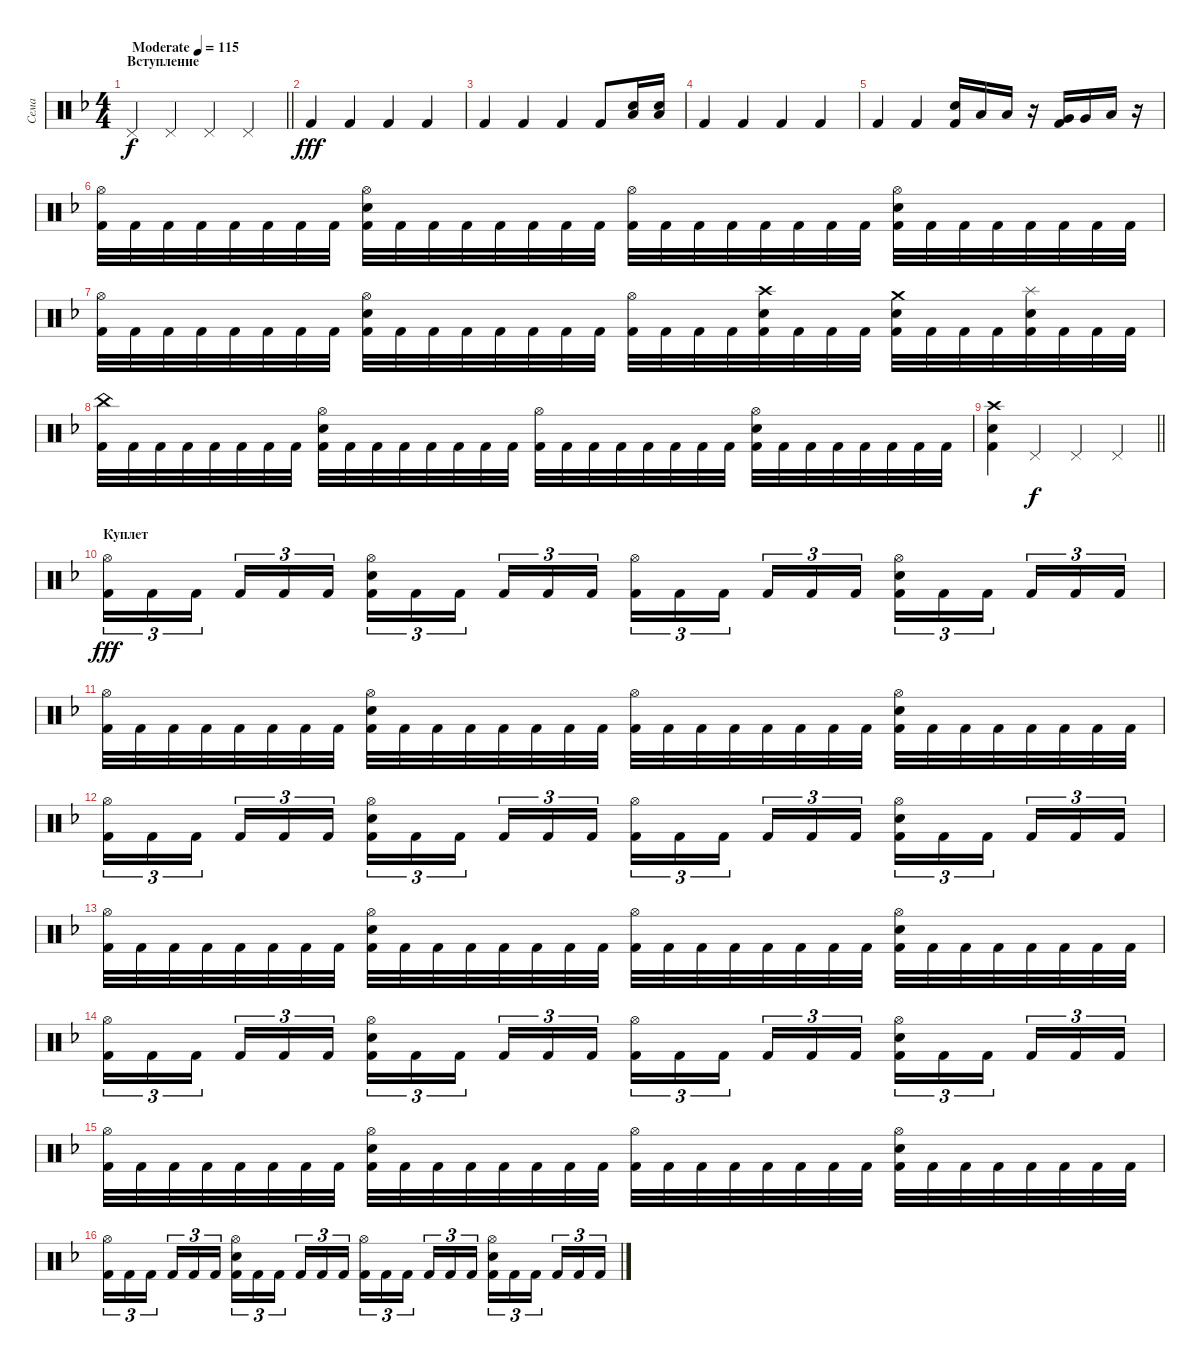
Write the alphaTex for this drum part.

\track ("Сема" "Сема") {instrument percussion}
\staff {score}
\articulation defaults
\ts (4 4)
\section ("" "Вступление")
\tempo (115 "Moderate")
\clef neutral
\barLineRight lightlight
\ks dminor "Pedal Hi-Hat (hit)".4{dy f} "Pedal Hi-Hat (hit)".4 "Pedal Hi-Hat (hit)".4 "Pedal Hi-Hat (hit)".4
|
"Kick (hit) 2".4{dy fff} "Kick (hit) 2".4 "Kick (hit) 2".4 "Kick (hit) 2".4 |
"Kick (hit) 2".4 "Kick (hit) 2".4 "Kick (hit) 2".4 "Kick (hit) 2".8 ("Electric Snare (hit)" "Low Floor Tom (hit)").16 ("Electric Snare (hit)" "Low Floor Tom (hit)").16 |
"Kick (hit) 2".4 "Kick (hit) 2".4 "Kick (hit) 2".4 "Kick (hit) 2".4 |
"Kick (hit) 2".4 "Kick (hit) 2".4 ("Electric Snare (hit)" "Kick (hit) 2").16 "Low Tom (hit)".16 "Low Tom (hit)".16 r.16 ("Very Low Tom (hit)" "Kick (hit) 2").16 "Very Low Tom (hit)".16 "Low Floor Tom (hit)".16 r.16 |
("Hi-Hat (open)" "Kick (hit) 2").32 "Kick (hit) 2".32 "Kick (hit) 2".32 "Kick (hit) 2".32 "Kick (hit) 2".32 "Kick (hit) 2".32 "Kick (hit) 2".32 "Kick (hit) 2".32 ("Hi-Hat (open)" "Electric Snare (hit)" "Kick (hit) 2").32 "Kick (hit) 2".32 "Kick (hit) 2".32 "Kick (hit) 2".32 "Kick (hit) 2".32 "Kick (hit) 2".32 "Kick (hit) 2".32 "Kick (hit) 2".32 ("Hi-Hat (open)" "Kick (hit) 2").32 "Kick (hit) 2".32 "Kick (hit) 2".32 "Kick (hit) 2".32 "Kick (hit) 2".32 "Kick (hit) 2".32 "Kick (hit) 2".32 "Kick (hit) 2".32 ("Hi-Hat (open)" "Electric Snare (hit)" "Kick (hit) 2").32 "Kick (hit) 2".32 "Kick (hit) 2".32 "Kick (hit) 2".32 "Kick (hit) 2".32 "Kick (hit) 2".32 "Kick (hit) 2".32 "Kick (hit) 2".32 |
("Hi-Hat (open)" "Kick (hit) 2").32 "Kick (hit) 2".32 "Kick (hit) 2".32 "Kick (hit) 2".32 "Kick (hit) 2".32 "Kick (hit) 2".32 "Kick (hit) 2".32 "Kick (hit) 2".32 ("Hi-Hat (open)" "Electric Snare (hit)" "Kick (hit) 2").32 "Kick (hit) 2".32 "Kick (hit) 2".32 "Kick (hit) 2".32 "Kick (hit) 2".32 "Kick (hit) 2".32 "Kick (hit) 2".32 "Kick (hit) 2".32 ("Hi-Hat (open)" "Kick (hit) 2").32 "Kick (hit) 2".32 "Kick (hit) 2".32 "Kick (hit) 2".32 ("Crash high (hit)" "Electric Snare (hit)" "Kick (hit) 2").32 "Kick (hit) 2".32 "Kick (hit) 2".32 "Kick (hit) 2".32 ("Crash medium (hit)" "Electric Snare (hit)" "Kick (hit) 2").32 "Kick (hit) 2".32 "Kick (hit) 2".32 "Kick (hit) 2".32 ("Splash (hit)" "Electric Snare (hit)" "Kick (hit) 2").32 "Kick (hit) 2".32 "Kick (hit) 2".32 "Kick (hit) 2".32 |
("China (hit)" "Kick (hit) 2").32 "Kick (hit) 2".32 "Kick (hit) 2".32 "Kick (hit) 2".32 "Kick (hit) 2".32 "Kick (hit) 2".32 "Kick (hit) 2".32 "Kick (hit) 2".32 ("Hi-Hat (open)" "Electric Snare (hit)" "Kick (hit) 2").32 "Kick (hit) 2".32 "Kick (hit) 2".32 "Kick (hit) 2".32 "Kick (hit) 2".32 "Kick (hit) 2".32 "Kick (hit) 2".32 "Kick (hit) 2".32 ("Hi-Hat (open)" "Kick (hit) 2").32 "Kick (hit) 2".32 "Kick (hit) 2".32 "Kick (hit) 2".32 "Kick (hit) 2".32 "Kick (hit) 2".32 "Kick (hit) 2".32 "Kick (hit) 2".32 ("Hi-Hat (open)" "Electric Snare (hit)" "Kick (hit) 2").32 "Kick (hit) 2".32 "Kick (hit) 2".32 "Kick (hit) 2".32 "Kick (hit) 2".32 "Kick (hit) 2".32 "Kick (hit) 2".32 "Kick (hit) 2".32 |
\barLineRight lightlight
("Crash high (hit)" "Electric Snare (hit)" "Kick (hit) 2").4 "Pedal Hi-Hat (hit)".4{dy f} "Pedal Hi-Hat (hit)".4 "Pedal Hi-Hat (hit)".4 |
\section ("" "Куплет ")
("Hi-Hat (open)" "Kick (hit) 2").16{tu (3 2) dy fff} "Kick (hit) 2".16{tu (3 2)} "Kick (hit) 2".16{tu (3 2) beam splitsecondary} "Kick (hit) 2".16{tu (3 2)} "Kick (hit) 2".16{tu (3 2)} "Kick (hit) 2".16{tu (3 2)} ("Hi-Hat (open)" "Electric Snare (hit)" "Kick (hit) 2").16{tu (3 2)} "Kick (hit) 2".16{tu (3 2)} "Kick (hit) 2".16{tu (3 2) beam splitsecondary} "Kick (hit) 2".16{tu (3 2)} "Kick (hit) 2".16{tu (3 2)} "Kick (hit) 2".16{tu (3 2)} ("Hi-Hat (open)" "Kick (hit) 2").16{tu (3 2)} "Kick (hit) 2".16{tu (3 2)} "Kick (hit) 2".16{tu (3 2) beam splitsecondary} "Kick (hit) 2".16{tu (3 2)} "Kick (hit) 2".16{tu (3 2)} "Kick (hit) 2".16{tu (3 2)} ("Hi-Hat (open)" "Electric Snare (hit)" "Kick (hit) 2").16{tu (3 2)} "Kick (hit) 2".16{tu (3 2)} "Kick (hit) 2".16{tu (3 2) beam splitsecondary} "Kick (hit) 2".16{tu (3 2)} "Kick (hit) 2".16{tu (3 2)} "Kick (hit) 2".16{tu (3 2)} |
("Hi-Hat (open)" "Kick (hit) 2").32 "Kick (hit) 2".32 "Kick (hit) 2".32 "Kick (hit) 2".32 "Kick (hit) 2".32 "Kick (hit) 2".32 "Kick (hit) 2".32 "Kick (hit) 2".32 ("Hi-Hat (open)" "Electric Snare (hit)" "Kick (hit) 2").32 "Kick (hit) 2".32 "Kick (hit) 2".32 "Kick (hit) 2".32 "Kick (hit) 2".32 "Kick (hit) 2".32 "Kick (hit) 2".32 "Kick (hit) 2".32 ("Hi-Hat (open)" "Kick (hit) 2").32 "Kick (hit) 2".32 "Kick (hit) 2".32 "Kick (hit) 2".32 "Kick (hit) 2".32 "Kick (hit) 2".32 "Kick (hit) 2".32 "Kick (hit) 2".32 ("Hi-Hat (open)" "Electric Snare (hit)" "Kick (hit) 2").32 "Kick (hit) 2".32 "Kick (hit) 2".32 "Kick (hit) 2".32 "Kick (hit) 2".32 "Kick (hit) 2".32 "Kick (hit) 2".32 "Kick (hit) 2".32 |
("Hi-Hat (open)" "Kick (hit) 2").16{tu (3 2)} "Kick (hit) 2".16{tu (3 2)} "Kick (hit) 2".16{tu (3 2) beam splitsecondary} "Kick (hit) 2".16{tu (3 2)} "Kick (hit) 2".16{tu (3 2)} "Kick (hit) 2".16{tu (3 2)} ("Hi-Hat (open)" "Electric Snare (hit)" "Kick (hit) 2").16{tu (3 2)} "Kick (hit) 2".16{tu (3 2)} "Kick (hit) 2".16{tu (3 2) beam splitsecondary} "Kick (hit) 2".16{tu (3 2)} "Kick (hit) 2".16{tu (3 2)} "Kick (hit) 2".16{tu (3 2)} ("Hi-Hat (open)" "Kick (hit) 2").16{tu (3 2)} "Kick (hit) 2".16{tu (3 2)} "Kick (hit) 2".16{tu (3 2) beam splitsecondary} "Kick (hit) 2".16{tu (3 2)} "Kick (hit) 2".16{tu (3 2)} "Kick (hit) 2".16{tu (3 2)} ("Hi-Hat (open)" "Electric Snare (hit)" "Kick (hit) 2").16{tu (3 2)} "Kick (hit) 2".16{tu (3 2)} "Kick (hit) 2".16{tu (3 2) beam splitsecondary} "Kick (hit) 2".16{tu (3 2)} "Kick (hit) 2".16{tu (3 2)} "Kick (hit) 2".16{tu (3 2)} |
("Hi-Hat (open)" "Kick (hit) 2").32 "Kick (hit) 2".32 "Kick (hit) 2".32 "Kick (hit) 2".32 "Kick (hit) 2".32 "Kick (hit) 2".32 "Kick (hit) 2".32 "Kick (hit) 2".32 ("Hi-Hat (open)" "Electric Snare (hit)" "Kick (hit) 2").32 "Kick (hit) 2".32 "Kick (hit) 2".32 "Kick (hit) 2".32 "Kick (hit) 2".32 "Kick (hit) 2".32 "Kick (hit) 2".32 "Kick (hit) 2".32 ("Hi-Hat (open)" "Kick (hit) 2").32 "Kick (hit) 2".32 "Kick (hit) 2".32 "Kick (hit) 2".32 "Kick (hit) 2".32 "Kick (hit) 2".32 "Kick (hit) 2".32 "Kick (hit) 2".32 ("Hi-Hat (open)" "Electric Snare (hit)" "Kick (hit) 2").32 "Kick (hit) 2".32 "Kick (hit) 2".32 "Kick (hit) 2".32 "Kick (hit) 2".32 "Kick (hit) 2".32 "Kick (hit) 2".32 "Kick (hit) 2".32 |
("Hi-Hat (open)" "Kick (hit) 2").16{tu (3 2)} "Kick (hit) 2".16{tu (3 2)} "Kick (hit) 2".16{tu (3 2) beam splitsecondary} "Kick (hit) 2".16{tu (3 2)} "Kick (hit) 2".16{tu (3 2)} "Kick (hit) 2".16{tu (3 2)} ("Hi-Hat (open)" "Electric Snare (hit)" "Kick (hit) 2").16{tu (3 2)} "Kick (hit) 2".16{tu (3 2)} "Kick (hit) 2".16{tu (3 2) beam splitsecondary} "Kick (hit) 2".16{tu (3 2)} "Kick (hit) 2".16{tu (3 2)} "Kick (hit) 2".16{tu (3 2)} ("Hi-Hat (open)" "Kick (hit) 2").16{tu (3 2)} "Kick (hit) 2".16{tu (3 2)} "Kick (hit) 2".16{tu (3 2) beam splitsecondary} "Kick (hit) 2".16{tu (3 2)} "Kick (hit) 2".16{tu (3 2)} "Kick (hit) 2".16{tu (3 2)} ("Hi-Hat (open)" "Electric Snare (hit)" "Kick (hit) 2").16{tu (3 2)} "Kick (hit) 2".16{tu (3 2)} "Kick (hit) 2".16{tu (3 2) beam splitsecondary} "Kick (hit) 2".16{tu (3 2)} "Kick (hit) 2".16{tu (3 2)} "Kick (hit) 2".16{tu (3 2)} |
("Hi-Hat (open)" "Kick (hit) 2").32 "Kick (hit) 2".32 "Kick (hit) 2".32 "Kick (hit) 2".32 "Kick (hit) 2".32 "Kick (hit) 2".32 "Kick (hit) 2".32 "Kick (hit) 2".32 ("Hi-Hat (open)" "Electric Snare (hit)" "Kick (hit) 2").32 "Kick (hit) 2".32 "Kick (hit) 2".32 "Kick (hit) 2".32 "Kick (hit) 2".32 "Kick (hit) 2".32 "Kick (hit) 2".32 "Kick (hit) 2".32 ("Hi-Hat (open)" "Kick (hit) 2").32 "Kick (hit) 2".32 "Kick (hit) 2".32 "Kick (hit) 2".32 "Kick (hit) 2".32 "Kick (hit) 2".32 "Kick (hit) 2".32 "Kick (hit) 2".32 ("Hi-Hat (open)" "Electric Snare (hit)" "Kick (hit) 2").32 "Kick (hit) 2".32 "Kick (hit) 2".32 "Kick (hit) 2".32 "Kick (hit) 2".32 "Kick (hit) 2".32 "Kick (hit) 2".32 "Kick (hit) 2".32 |
("Hi-Hat (open)" "Kick (hit) 2").16{tu (3 2)} "Kick (hit) 2".16{tu (3 2)} "Kick (hit) 2".16{tu (3 2) beam splitsecondary} "Kick (hit) 2".16{tu (3 2)} "Kick (hit) 2".16{tu (3 2)} "Kick (hit) 2".16{tu (3 2)} ("Hi-Hat (open)" "Electric Snare (hit)" "Kick (hit) 2").16{tu (3 2)} "Kick (hit) 2".16{tu (3 2)} "Kick (hit) 2".16{tu (3 2) beam splitsecondary} "Kick (hit) 2".16{tu (3 2)} "Kick (hit) 2".16{tu (3 2)} "Kick (hit) 2".16{tu (3 2)} ("Hi-Hat (open)" "Kick (hit) 2").16{tu (3 2)} "Kick (hit) 2".16{tu (3 2)} "Kick (hit) 2".16{tu (3 2) beam splitsecondary} "Kick (hit) 2".16{tu (3 2)} "Kick (hit) 2".16{tu (3 2)} "Kick (hit) 2".16{tu (3 2)} ("Hi-Hat (open)" "Electric Snare (hit)" "Kick (hit) 2").16{tu (3 2)} "Kick (hit) 2".16{tu (3 2)} "Kick (hit) 2".16{tu (3 2) beam splitsecondary} "Kick (hit) 2".16{tu (3 2)} "Kick (hit) 2".16{tu (3 2)} "Kick (hit) 2".16{tu (3 2)}
